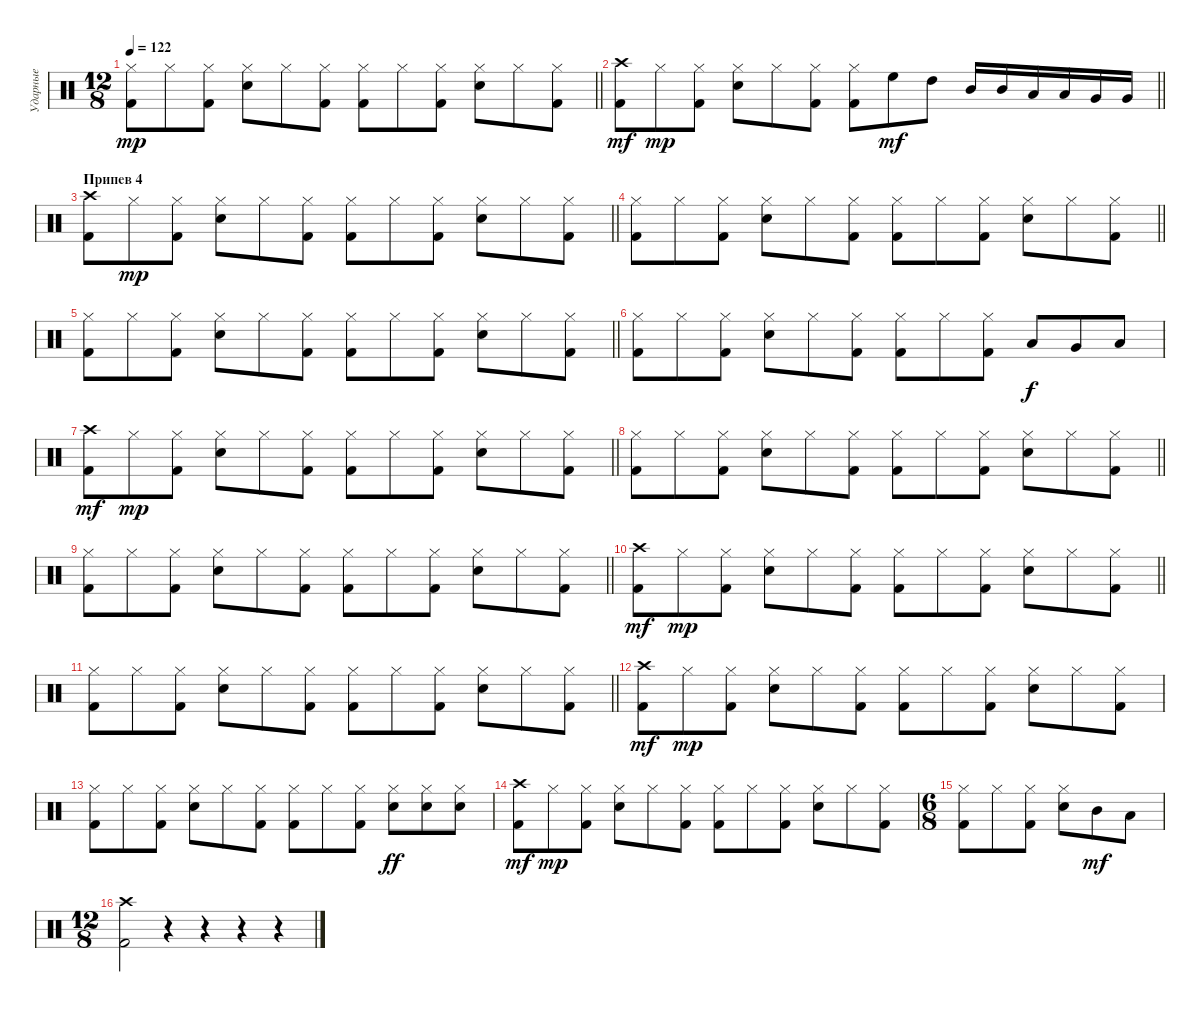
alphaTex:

\track ("Ударные" "Ударные") {instrument percussion}
\staff {score}
\articulation defaults
\ts (12 8)
\tempo 122
\clef neutral
\barLineRight lightlight
\ks c
("Hi-Hat (closed)" "Kick (hit) 2").8{dy mp} "Hi-Hat (closed)".8 ("Hi-Hat (closed)" "Kick (hit) 2").8 ("Hi-Hat (closed)" "Electric Snare (hit)").8 "Hi-Hat (closed)".8 ("Hi-Hat (closed)" "Kick (hit) 2").8 ("Hi-Hat (closed)" "Kick (hit) 2").8 "Hi-Hat (closed)".8 ("Hi-Hat (closed)" "Kick (hit) 2").8 ("Hi-Hat (closed)" "Electric Snare (hit)").8 "Hi-Hat (closed)".8 ("Hi-Hat (closed)" "Kick (hit) 2").8 |
\barLineRight lightlight
("Crash high (hit)" "Kick (hit) 2").8{dy mf} "Hi-Hat (closed)".8{dy mp} ("Hi-Hat (closed)" "Kick (hit) 2").8 ("Hi-Hat (closed)" "Electric Snare (hit)").8 "Hi-Hat (closed)".8 ("Hi-Hat (closed)" "Kick (hit) 2").8 ("Hi-Hat (closed)" "Kick (hit) 2").8 "High Floor Tom (hit)".8{dy mf} "High Tom (hit)".8 "Mid Tom (hit)".16 "Mid Tom (hit)".16 "Low Tom (hit)".16 "Low Tom (hit)".16 "Very Low Tom (hit)".16 "Very Low Tom (hit)".16 |
\section ("" "Припев 4")
\barLineRight lightlight
("Crash high (hit)" "Kick (hit) 2").8 "Hi-Hat (closed)".8{dy mp} ("Hi-Hat (closed)" "Kick (hit) 2").8 ("Hi-Hat (closed)" "Electric Snare (hit)").8 "Hi-Hat (closed)".8 ("Hi-Hat (closed)" "Kick (hit) 2").8 ("Hi-Hat (closed)" "Kick (hit) 2").8 "Hi-Hat (closed)".8 ("Hi-Hat (closed)" "Kick (hit) 2").8 ("Hi-Hat (closed)" "Electric Snare (hit)").8 "Hi-Hat (closed)".8 ("Hi-Hat (closed)" "Kick (hit) 2").8 |
\barLineRight lightlight
("Hi-Hat (closed)" "Kick (hit) 2").8 "Hi-Hat (closed)".8 ("Hi-Hat (closed)" "Kick (hit) 2").8 ("Hi-Hat (closed)" "Electric Snare (hit)").8 "Hi-Hat (closed)".8 ("Hi-Hat (closed)" "Kick (hit) 2").8 ("Hi-Hat (closed)" "Kick (hit) 2").8 "Hi-Hat (closed)".8 ("Hi-Hat (closed)" "Kick (hit) 2").8 ("Hi-Hat (closed)" "Electric Snare (hit)").8 "Hi-Hat (closed)".8 ("Hi-Hat (closed)" "Kick (hit) 2").8 |
\barLineRight lightlight
("Hi-Hat (closed)" "Kick (hit) 2").8 "Hi-Hat (closed)".8 ("Hi-Hat (closed)" "Kick (hit) 2").8 ("Hi-Hat (closed)" "Electric Snare (hit)").8 "Hi-Hat (closed)".8 ("Hi-Hat (closed)" "Kick (hit) 2").8 ("Hi-Hat (closed)" "Kick (hit) 2").8 "Hi-Hat (closed)".8 ("Hi-Hat (closed)" "Kick (hit) 2").8 ("Hi-Hat (closed)" "Electric Snare (hit)").8 "Hi-Hat (closed)".8 ("Hi-Hat (closed)" "Kick (hit) 2").8 |
("Hi-Hat (closed)" "Kick (hit) 2").8 "Hi-Hat (closed)".8 ("Hi-Hat (closed)" "Kick (hit) 2").8 ("Hi-Hat (closed)" "Electric Snare (hit)").8 "Hi-Hat (closed)".8 ("Hi-Hat (closed)" "Kick (hit) 2").8 ("Hi-Hat (closed)" "Kick (hit) 2").8 "Hi-Hat (closed)".8 ("Hi-Hat (closed)" "Kick (hit) 2").8 "Low Tom (hit)".8{dy f} "Very Low Tom (hit)".8 "Low Floor Tom (hit)".8 |
\barLineRight lightlight
("Crash high (hit)" "Kick (hit) 2").8{dy mf} "Hi-Hat (closed)".8{dy mp} ("Hi-Hat (closed)" "Kick (hit) 2").8 ("Hi-Hat (closed)" "Electric Snare (hit)").8 "Hi-Hat (closed)".8 ("Hi-Hat (closed)" "Kick (hit) 2").8 ("Hi-Hat (closed)" "Kick (hit) 2").8 "Hi-Hat (closed)".8 ("Hi-Hat (closed)" "Kick (hit) 2").8 ("Hi-Hat (closed)" "Electric Snare (hit)").8 "Hi-Hat (closed)".8 ("Hi-Hat (closed)" "Kick (hit) 2").8 |
\barLineRight lightlight
("Hi-Hat (closed)" "Kick (hit) 2").8 "Hi-Hat (closed)".8 ("Hi-Hat (closed)" "Kick (hit) 2").8 ("Hi-Hat (closed)" "Electric Snare (hit)").8 "Hi-Hat (closed)".8 ("Hi-Hat (closed)" "Kick (hit) 2").8 ("Hi-Hat (closed)" "Kick (hit) 2").8 "Hi-Hat (closed)".8 ("Hi-Hat (closed)" "Kick (hit) 2").8 ("Hi-Hat (closed)" "Electric Snare (hit)").8 "Hi-Hat (closed)".8 ("Hi-Hat (closed)" "Kick (hit) 2").8 |
\barLineRight lightlight
("Hi-Hat (closed)" "Kick (hit) 2").8 "Hi-Hat (closed)".8 ("Hi-Hat (closed)" "Kick (hit) 2").8 ("Hi-Hat (closed)" "Electric Snare (hit)").8 "Hi-Hat (closed)".8 ("Hi-Hat (closed)" "Kick (hit) 2").8 ("Hi-Hat (closed)" "Kick (hit) 2").8 "Hi-Hat (closed)".8 ("Hi-Hat (closed)" "Kick (hit) 2").8 ("Hi-Hat (closed)" "Electric Snare (hit)").8 "Hi-Hat (closed)".8 ("Hi-Hat (closed)" "Kick (hit) 2").8 |
\barLineRight lightlight
("Crash high (hit)" "Kick (hit) 2").8{dy mf} "Hi-Hat (closed)".8{dy mp} ("Hi-Hat (closed)" "Kick (hit) 2").8 ("Hi-Hat (closed)" "Electric Snare (hit)").8 "Hi-Hat (closed)".8 ("Hi-Hat (closed)" "Kick (hit) 2").8 ("Hi-Hat (closed)" "Kick (hit) 2").8 "Hi-Hat (closed)".8 ("Hi-Hat (closed)" "Kick (hit) 2").8 ("Hi-Hat (closed)" "Electric Snare (hit)").8 "Hi-Hat (closed)".8 ("Hi-Hat (closed)" "Kick (hit) 2").8 |
\barLineRight lightlight
("Hi-Hat (closed)" "Kick (hit) 2").8 "Hi-Hat (closed)".8 ("Hi-Hat (closed)" "Kick (hit) 2").8 ("Hi-Hat (closed)" "Electric Snare (hit)").8 "Hi-Hat (closed)".8 ("Hi-Hat (closed)" "Kick (hit) 2").8 ("Hi-Hat (closed)" "Kick (hit) 2").8 "Hi-Hat (closed)".8 ("Hi-Hat (closed)" "Kick (hit) 2").8 ("Hi-Hat (closed)" "Electric Snare (hit)").8 "Hi-Hat (closed)".8 ("Hi-Hat (closed)" "Kick (hit) 2").8 |
("Crash high (hit)" "Kick (hit) 2").8{dy mf} "Hi-Hat (closed)".8{dy mp} ("Hi-Hat (closed)" "Kick (hit) 2").8 ("Hi-Hat (closed)" "Electric Snare (hit)").8 "Hi-Hat (closed)".8 ("Hi-Hat (closed)" "Kick (hit) 2").8 ("Hi-Hat (closed)" "Kick (hit) 2").8 "Hi-Hat (closed)".8 ("Hi-Hat (closed)" "Kick (hit) 2").8 ("Hi-Hat (closed)" "Electric Snare (hit)").8 "Hi-Hat (closed)".8 ("Hi-Hat (closed)" "Kick (hit) 2").8 |
("Hi-Hat (closed)" "Kick (hit) 2").8 "Hi-Hat (closed)".8 ("Hi-Hat (closed)" "Kick (hit) 2").8 ("Hi-Hat (closed)" "Electric Snare (hit)").8 "Hi-Hat (closed)".8 ("Hi-Hat (closed)" "Kick (hit) 2").8 ("Hi-Hat (closed)" "Kick (hit) 2").8 "Hi-Hat (closed)".8 ("Hi-Hat (closed)" "Kick (hit) 2").8 ("Hi-Hat (closed)" "Snare (hit) 2").8{dy ff} ("Hi-Hat (closed)" "Snare (hit) 2").8 ("Hi-Hat (closed)" "Snare (hit) 2").8 |
("Crash high (hit)" "Kick (hit) 2").8{dy mf} "Hi-Hat (closed)".8{dy mp} ("Hi-Hat (closed)" "Kick (hit) 2").8 ("Hi-Hat (closed)" "Electric Snare (hit)").8 "Hi-Hat (closed)".8 ("Hi-Hat (closed)" "Kick (hit) 2").8 ("Hi-Hat (closed)" "Kick (hit) 2").8 "Hi-Hat (closed)".8 ("Hi-Hat (closed)" "Kick (hit) 2").8 ("Hi-Hat (closed)" "Electric Snare (hit)").8 "Hi-Hat (closed)".8 ("Hi-Hat (closed)" "Kick (hit) 2").8 |
\ts (6 8)
("Hi-Hat (closed)" "Kick (hit) 2").8 "Hi-Hat (closed)".8 ("Hi-Hat (closed)" "Kick (hit) 2").8 ("Hi-Hat (closed)" "Electric Snare (hit)").8 "Mid Tom (hit)".8{dy mf} "Low Tom (hit)".8 |
\ts (12 8)
("Crash high (hit)" "Kick (hit) 2").2 r.4 r.4 r.4 r.4
